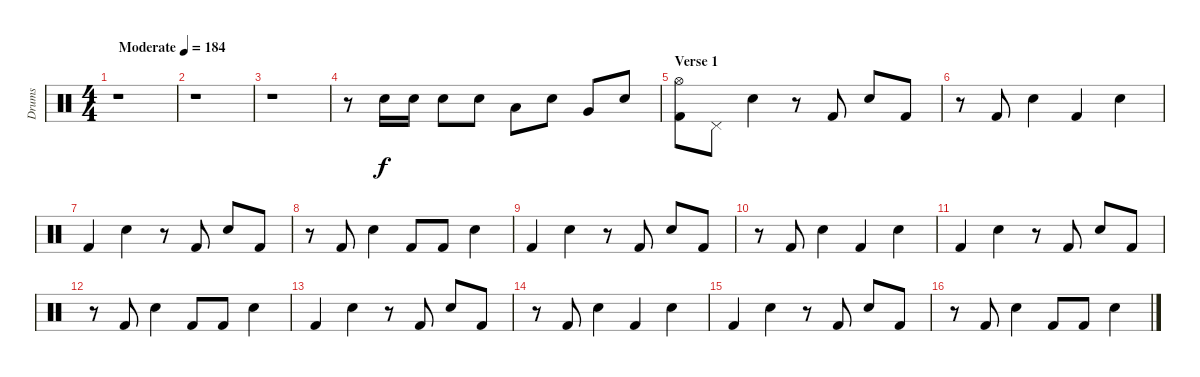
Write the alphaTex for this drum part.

\track ("Drums" "Drums") {instrument percussion}
\staff {score}
\articulation defaults
\ts (4 4)
\tempo (184 "Moderate")
\clef neutral
\ks c
r.1{dy f} |
r.1 |
r.1 |
r.8 "Snare (hit) 2".16 "Snare (hit) 2".16 "Snare (hit) 2".8 "Snare (hit) 2".8 "Low Tom (hit)".8 "Snare (hit) 2".8 "Very Low Tom (hit)".8 "Snare (hit) 2".8 |
\section ("" "Verse 1")
("Hi-Hat (open)" "Kick (hit) 2").8 "Pedal Hi-Hat (hit)".8 "Snare (hit) 2".4 r.8 "Kick (hit) 2".8 "Snare (hit) 2".8 "Kick (hit) 2".8 |
r.8 "Kick (hit) 2".8 "Snare (hit) 2".4 "Kick (hit) 2".4 "Snare (hit) 2".4 |
"Kick (hit) 2".4 "Snare (hit) 2".4 r.8 "Kick (hit) 2".8 "Snare (hit) 2".8 "Kick (hit) 2".8 |
r.8 "Kick (hit) 2".8 "Snare (hit) 2".4 "Kick (hit) 2".8 "Kick (hit) 2".8 "Snare (hit) 2".4 |
"Kick (hit) 2".4 "Snare (hit) 2".4 r.8 "Kick (hit) 2".8 "Snare (hit) 2".8 "Kick (hit) 2".8 |
r.8 "Kick (hit) 2".8 "Snare (hit) 2".4 "Kick (hit) 2".4 "Snare (hit) 2".4 |
"Kick (hit) 2".4 "Snare (hit) 2".4 r.8 "Kick (hit) 2".8 "Snare (hit) 2".8 "Kick (hit) 2".8 |
r.8 "Kick (hit) 2".8 "Snare (hit) 2".4 "Kick (hit) 2".8 "Kick (hit) 2".8 "Snare (hit) 2".4 |
"Kick (hit) 2".4 "Snare (hit) 2".4 r.8 "Kick (hit) 2".8 "Snare (hit) 2".8 "Kick (hit) 2".8 |
r.8 "Kick (hit) 2".8 "Snare (hit) 2".4 "Kick (hit) 2".4 "Snare (hit) 2".4 |
"Kick (hit) 2".4 "Snare (hit) 2".4 r.8 "Kick (hit) 2".8 "Snare (hit) 2".8 "Kick (hit) 2".8 |
r.8 "Kick (hit) 2".8 "Snare (hit) 2".4 "Kick (hit) 2".8 "Kick (hit) 2".8 "Snare (hit) 2".4
